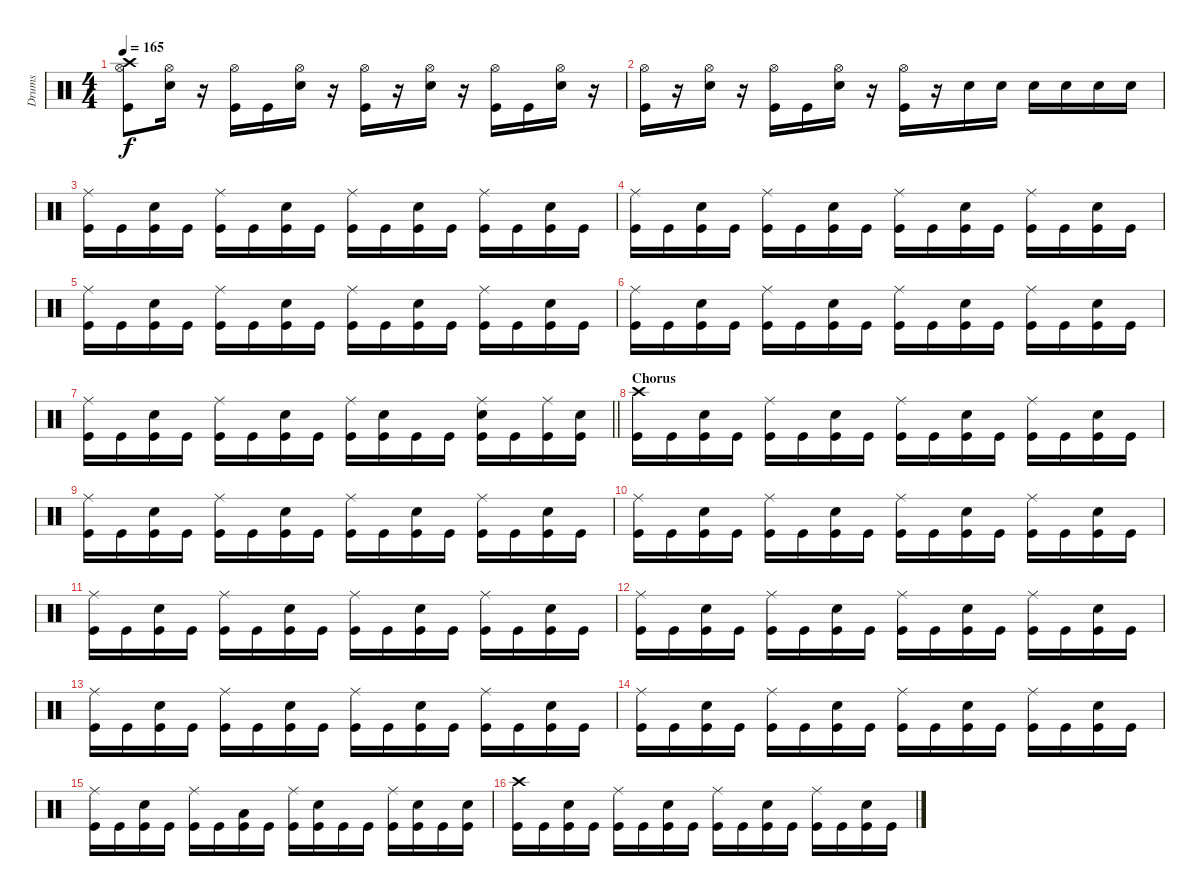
\track ("Drums" "Drums") {instrument percussion}
\staff {score}
\articulation defaults
\ts (4 4)
\tempo 165
\clef neutral
\ks c
("Crash high (hit)" "Hi-Hat (open)" "Kick (hit)").8{dy f} ("Electric Snare (hit)" "Hi-Hat (open)").16 r.16 ("Kick (hit)" "Hi-Hat (open)").16 "Kick (hit)".16 ("Electric Snare (hit)" "Hi-Hat (open)").16 r.16 ("Kick (hit)" "Hi-Hat (open)").16 r.16 ("Electric Snare (hit)" "Hi-Hat (open)").16 r.16 ("Kick (hit)" "Hi-Hat (open)").16 "Kick (hit)".16 ("Electric Snare (hit)" "Hi-Hat (open)").16 r.16 |
("Hi-Hat (open)" "Kick (hit)").16 r.16 ("Electric Snare (hit)" "Hi-Hat (open)").16 r.16 ("Kick (hit)" "Hi-Hat (open)").16 "Kick (hit)".16 ("Electric Snare (hit)" "Hi-Hat (open)").16 r.16 ("Kick (hit)" "Hi-Hat (open)").16 r.16 "Electric Snare (hit)".16 "Electric Snare (hit)".16 "Electric Snare (hit)".16 "Electric Snare (hit)".16 "Electric Snare (hit)".16 "Electric Snare (hit)".16 |
("Ride (middle)" "Kick (hit)").16 "Kick (hit)".16 ("Electric Snare (hit)" "Kick (hit)").16 "Kick (hit)".16 ("Ride (middle)" "Kick (hit)").16 "Kick (hit)".16 ("Electric Snare (hit)" "Kick (hit)").16 "Kick (hit)".16 ("Ride (middle)" "Kick (hit)").16 "Kick (hit)".16 ("Electric Snare (hit)" "Kick (hit)").16 "Kick (hit)".16 ("Ride (middle)" "Kick (hit)").16 "Kick (hit)".16 ("Electric Snare (hit)" "Kick (hit)").16 "Kick (hit)".16 |
("Ride (middle)" "Kick (hit)").16 "Kick (hit)".16 ("Electric Snare (hit)" "Kick (hit)").16 "Kick (hit)".16 ("Ride (middle)" "Kick (hit)").16 "Kick (hit)".16 ("Electric Snare (hit)" "Kick (hit)").16 "Kick (hit)".16 ("Ride (middle)" "Kick (hit)").16 "Kick (hit)".16 ("Electric Snare (hit)" "Kick (hit)").16 "Kick (hit)".16 ("Ride (middle)" "Kick (hit)").16 "Kick (hit)".16 ("Electric Snare (hit)" "Kick (hit)").16 "Kick (hit)".16 |
("Ride (middle)" "Kick (hit)").16 "Kick (hit)".16 ("Electric Snare (hit)" "Kick (hit)").16 "Kick (hit)".16 ("Ride (middle)" "Kick (hit)").16 "Kick (hit)".16 ("Electric Snare (hit)" "Kick (hit)").16 "Kick (hit)".16 ("Ride (middle)" "Kick (hit)").16 "Kick (hit)".16 ("Electric Snare (hit)" "Kick (hit)").16 "Kick (hit)".16 ("Ride (middle)" "Kick (hit)").16 "Kick (hit)".16 ("Electric Snare (hit)" "Kick (hit)").16 "Kick (hit)".16 |
("Ride (middle)" "Kick (hit)").16 "Kick (hit)".16 ("Electric Snare (hit)" "Kick (hit)").16 "Kick (hit)".16 ("Ride (middle)" "Kick (hit)").16 "Kick (hit)".16 ("Electric Snare (hit)" "Kick (hit)").16 "Kick (hit)".16 ("Ride (middle)" "Kick (hit)").16 "Kick (hit)".16 ("Electric Snare (hit)" "Kick (hit)").16 "Kick (hit)".16 ("Ride (middle)" "Kick (hit)").16 "Kick (hit)".16 ("Electric Snare (hit)" "Kick (hit)").16 "Kick (hit)".16 |
\barLineRight lightlight
("Ride (middle)" "Kick (hit)").16 "Kick (hit)".16 ("Electric Snare (hit)" "Kick (hit)").16 "Kick (hit)".16 ("Ride (middle)" "Kick (hit)").16 "Kick (hit)".16 ("Electric Snare (hit)" "Kick (hit)").16 "Kick (hit)".16 ("Ride (middle)" "Kick (hit)").16 ("Electric Snare (hit)" "Kick (hit)").16 "Kick (hit)".16 "Kick (hit)".16 ("Ride (middle)" "Electric Snare (hit)" "Kick (hit)").16 "Kick (hit)".16 ("Ride (middle)" "Kick (hit)").16 ("Electric Snare (hit)" "Kick (hit)").16 |
\section ("" "Chorus")
("Kick (hit)" "Crash high (hit)").16{volume 14 balance 8} "Kick (hit)".16 ("Electric Snare (hit)" "Kick (hit)").16 "Kick (hit)".16 ("Ride (middle)" "Kick (hit)").16 "Kick (hit)".16 ("Electric Snare (hit)" "Kick (hit)").16 "Kick (hit)".16 ("Ride (middle)" "Kick (hit)").16 "Kick (hit)".16 ("Electric Snare (hit)" "Kick (hit)").16 "Kick (hit)".16 ("Ride (middle)" "Kick (hit)").16 "Kick (hit)".16 ("Electric Snare (hit)" "Kick (hit)").16 "Kick (hit)".16 |
("Ride (middle)" "Kick (hit)").16 "Kick (hit)".16 ("Electric Snare (hit)" "Kick (hit)").16 "Kick (hit)".16 ("Ride (middle)" "Kick (hit)").16 "Kick (hit)".16 ("Electric Snare (hit)" "Kick (hit)").16 "Kick (hit)".16 ("Ride (middle)" "Kick (hit)").16 "Kick (hit)".16 ("Electric Snare (hit)" "Kick (hit)").16 "Kick (hit)".16 ("Ride (middle)" "Kick (hit)").16 "Kick (hit)".16 ("Electric Snare (hit)" "Kick (hit)").16 "Kick (hit)".16 |
("Ride (middle)" "Kick (hit)").16 "Kick (hit)".16 ("Electric Snare (hit)" "Kick (hit)").16 "Kick (hit)".16 ("Ride (middle)" "Kick (hit)").16 "Kick (hit)".16 ("Electric Snare (hit)" "Kick (hit)").16 "Kick (hit)".16 ("Ride (middle)" "Kick (hit)").16 "Kick (hit)".16 ("Electric Snare (hit)" "Kick (hit)").16 "Kick (hit)".16 ("Ride (middle)" "Kick (hit)").16 "Kick (hit)".16 ("Electric Snare (hit)" "Kick (hit)").16 "Kick (hit)".16 |
("Ride (middle)" "Kick (hit)").16 "Kick (hit)".16 ("Electric Snare (hit)" "Kick (hit)").16 "Kick (hit)".16 ("Ride (middle)" "Kick (hit)").16 "Kick (hit)".16 ("Electric Snare (hit)" "Kick (hit)").16 "Kick (hit)".16 ("Ride (middle)" "Kick (hit)").16 "Kick (hit)".16 ("Electric Snare (hit)" "Kick (hit)").16 "Kick (hit)".16 ("Ride (middle)" "Kick (hit)").16 "Kick (hit)".16 ("Electric Snare (hit)" "Kick (hit)").16 "Kick (hit)".16 |
("Ride (middle)" "Kick (hit)").16 "Kick (hit)".16 ("Electric Snare (hit)" "Kick (hit)").16 "Kick (hit)".16 ("Ride (middle)" "Kick (hit)").16 "Kick (hit)".16 ("Electric Snare (hit)" "Kick (hit)").16 "Kick (hit)".16 ("Ride (middle)" "Kick (hit)").16 "Kick (hit)".16 ("Electric Snare (hit)" "Kick (hit)").16 "Kick (hit)".16 ("Ride (middle)" "Kick (hit)").16 "Kick (hit)".16 ("Electric Snare (hit)" "Kick (hit)").16 "Kick (hit)".16 |
("Ride (middle)" "Kick (hit)").16 "Kick (hit)".16 ("Electric Snare (hit)" "Kick (hit)").16 "Kick (hit)".16 ("Ride (middle)" "Kick (hit)").16 "Kick (hit)".16 ("Electric Snare (hit)" "Kick (hit)").16 "Kick (hit)".16 ("Ride (middle)" "Kick (hit)").16 "Kick (hit)".16 ("Electric Snare (hit)" "Kick (hit)").16 "Kick (hit)".16 ("Ride (middle)" "Kick (hit)").16 "Kick (hit)".16 ("Electric Snare (hit)" "Kick (hit)").16 "Kick (hit)".16 |
("Ride (middle)" "Kick (hit)").16 "Kick (hit)".16 ("Electric Snare (hit)" "Kick (hit)").16 "Kick (hit)".16 ("Ride (middle)" "Kick (hit)").16 "Kick (hit)".16 ("Electric Snare (hit)" "Kick (hit)").16 "Kick (hit)".16 ("Ride (middle)" "Kick (hit)").16 "Kick (hit)".16 ("Electric Snare (hit)" "Kick (hit)").16 "Kick (hit)".16 ("Ride (middle)" "Kick (hit)").16 "Kick (hit)".16 ("Electric Snare (hit)" "Kick (hit)").16 "Kick (hit)".16 |
("Ride (middle)" "Kick (hit)").16 "Kick (hit)".16 ("Electric Snare (hit)" "Kick (hit)").16 "Kick (hit)".16 ("Ride (middle)" "Kick (hit)").16 "Kick (hit)".16 ("Low Tom (hit)" "Kick (hit)").16 "Kick (hit)".16 ("Ride (middle)" "Kick (hit)").16 ("Electric Snare (hit)" "Kick (hit)").16 "Kick (hit)".16 "Kick (hit)".16 ("Ride (middle)" "Kick (hit)").16 ("Electric Snare (hit)" "Kick (hit)").16 "Kick (hit)".16 ("Electric Snare (hit)" "Kick (hit)").16 |
("Kick (hit)" "Crash high (hit)").16 "Kick (hit)".16 ("Electric Snare (hit)" "Kick (hit)").16 "Kick (hit)".16 ("Ride (middle)" "Kick (hit)").16 "Kick (hit)".16 ("Electric Snare (hit)" "Kick (hit)").16 "Kick (hit)".16 ("Ride (middle)" "Kick (hit)").16 "Kick (hit)".16 ("Electric Snare (hit)" "Kick (hit)").16 "Kick (hit)".16 ("Ride (middle)" "Kick (hit)").16 "Kick (hit)".16 ("Electric Snare (hit)" "Kick (hit)").16 "Kick (hit)".16
